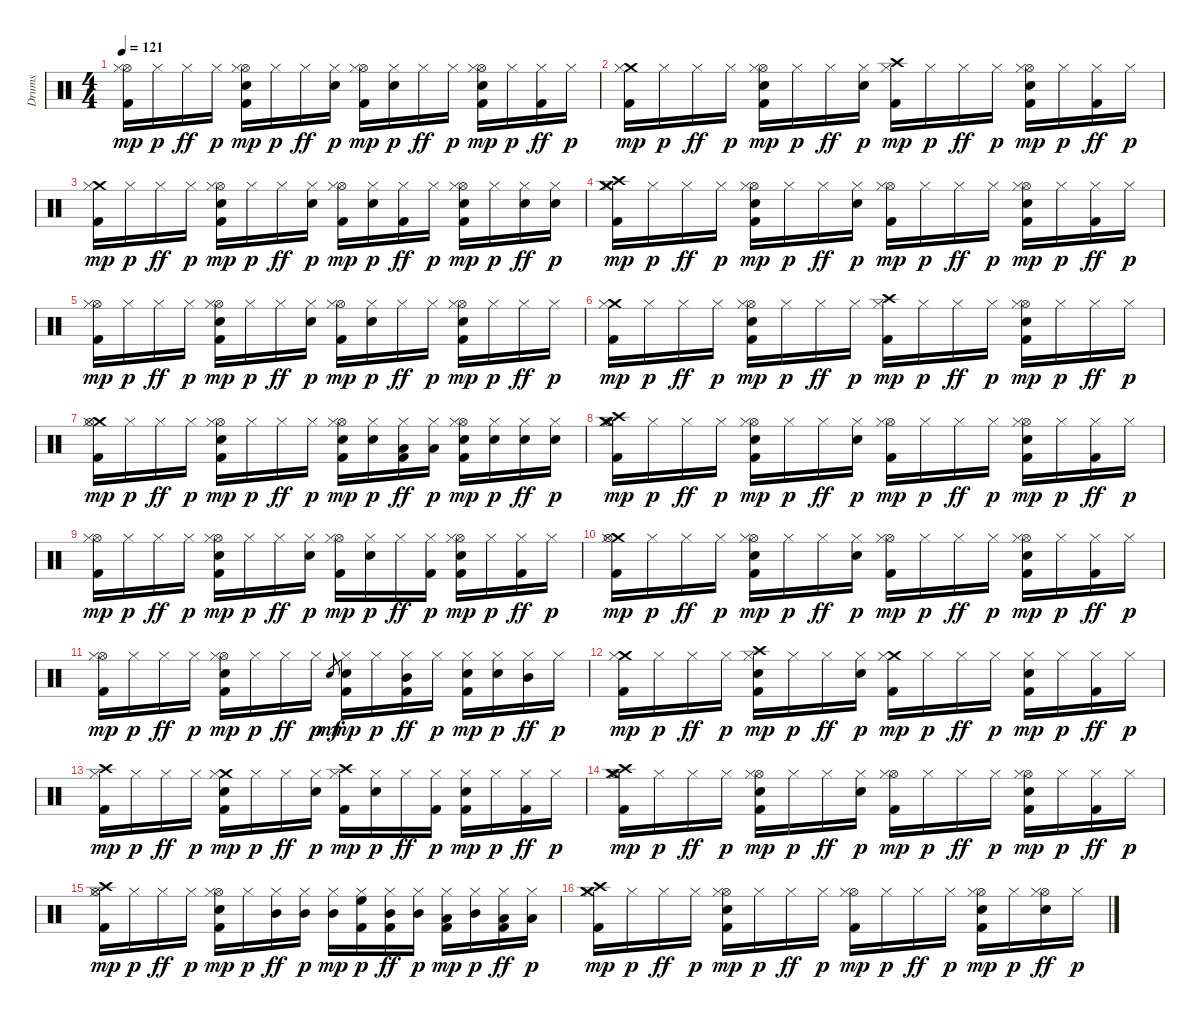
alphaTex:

\track ("Drums" "Drums") {instrument percussion}
\staff {score}
\articulation defaults
\ts (4 4)
\tempo 121
\clef neutral
\ks c
("Kick (hit) 2" "Hi-Hat (open)" "Hi-Hat (closed)").16{dy mp} "Hi-Hat (closed)".16{dy p} "Hi-Hat (closed)".16{dy ff} "Hi-Hat (closed)".16{dy p} ("Kick (hit) 2" "Hi-Hat (open)" "Electric Snare (hit)" "Hi-Hat (closed)").16{dy mp} "Hi-Hat (closed)".16{dy p} "Hi-Hat (closed)".16{dy ff} ("Electric Snare (hit)" "Hi-Hat (closed)").16{dy p} ("Kick (hit) 2" "Hi-Hat (open)" "Hi-Hat (closed)").16{dy mp} ("Electric Snare (hit)" "Hi-Hat (closed)").16{dy p} "Hi-Hat (closed)".16{dy ff} "Hi-Hat (closed)".16{dy p} ("Kick (hit) 2" "Hi-Hat (open)" "Electric Snare (hit)" "Hi-Hat (closed)").16{dy mp} "Hi-Hat (closed)".16{dy p} ("Kick (hit) 2" "Hi-Hat (closed)").16{dy ff} "Hi-Hat (closed)".16{dy p} |
("Kick (hit) 2" "Crash medium (hit)" "Hi-Hat (closed)").16{dy mp} "Hi-Hat (closed)".16{dy p} "Hi-Hat (closed)".16{dy ff} "Hi-Hat (closed)".16{dy p} ("Kick (hit) 2" "Hi-Hat (open)" "Electric Snare (hit)" "Hi-Hat (closed)").16{dy mp} "Hi-Hat (closed)".16{dy p} "Hi-Hat (closed)".16{dy ff} ("Electric Snare (hit)" "Hi-Hat (closed)").16{dy p} ("Crash high (hit)" "Kick (hit) 2" "Hi-Hat (closed)").16{dy mp} "Hi-Hat (closed)".16{dy p} "Hi-Hat (closed)".16{dy ff} "Hi-Hat (closed)".16{dy p} ("Kick (hit) 2" "Hi-Hat (open)" "Electric Snare (hit)" "Hi-Hat (closed)").16{dy mp} "Hi-Hat (closed)".16{dy p} ("Kick (hit) 2" "Hi-Hat (closed)").16{dy ff} "Hi-Hat (closed)".16{dy p} |
("Kick (hit) 2" "Crash medium (hit)" "Hi-Hat (closed)").16{dy mp} "Hi-Hat (closed)".16{dy p} "Hi-Hat (closed)".16{dy ff} "Hi-Hat (closed)".16{dy p} ("Hi-Hat (open)" "Kick (hit) 2" "Electric Snare (hit)" "Hi-Hat (closed)").16{dy mp} "Hi-Hat (closed)".16{dy p} "Hi-Hat (closed)".16{dy ff} ("Electric Snare (hit)" "Hi-Hat (closed)").16{dy p} ("Hi-Hat (open)" "Kick (hit) 2" "Hi-Hat (closed)").16{dy mp} ("Electric Snare (hit)" "Hi-Hat (closed)").16{dy p} ("Kick (hit) 2" "Hi-Hat (closed)").16{dy ff} "Hi-Hat (closed)".16{dy p} ("Hi-Hat (open)" "Kick (hit) 2" "Snare (hit) 2" "Hi-Hat (closed)").16{dy mp} "Hi-Hat (closed)".16{dy p} ("Snare (hit) 2" "Hi-Hat (closed)").16{dy ff} ("Electric Snare (hit)" "Hi-Hat (closed)").16{dy p} |
("Crash high (hit)" "Crash medium (hit)" "Kick (hit) 2" "Hi-Hat (closed)").16{dy mp} "Hi-Hat (closed)".16{dy p} "Hi-Hat (closed)".16{dy ff} "Hi-Hat (closed)".16{dy p} ("Hi-Hat (open)" "Kick (hit) 2" "Electric Snare (hit)" "Hi-Hat (closed)").16{dy mp} "Hi-Hat (closed)".16{dy p} "Hi-Hat (closed)".16{dy ff} ("Electric Snare (hit)" "Hi-Hat (closed)").16{dy p} ("Hi-Hat (open)" "Kick (hit) 2" "Hi-Hat (closed)").16{dy mp} "Hi-Hat (closed)".16{dy p} "Hi-Hat (closed)".16{dy ff} "Hi-Hat (closed)".16{dy p} ("Hi-Hat (open)" "Kick (hit) 2" "Electric Snare (hit)" "Hi-Hat (closed)").16{dy mp} "Hi-Hat (closed)".16{dy p} ("Kick (hit) 2" "Hi-Hat (closed)").16{dy ff} "Hi-Hat (closed)".16{dy p} |
("Hi-Hat (open)" "Kick (hit) 2" "Hi-Hat (closed)").16{dy mp} "Hi-Hat (closed)".16{dy p} "Hi-Hat (closed)".16{dy ff} "Hi-Hat (closed)".16{dy p} ("Hi-Hat (open)" "Kick (hit) 2" "Electric Snare (hit)" "Hi-Hat (closed)").16{dy mp} "Hi-Hat (closed)".16{dy p} "Hi-Hat (closed)".16{dy ff} ("Electric Snare (hit)" "Hi-Hat (closed)").16{dy p} ("Hi-Hat (open)" "Kick (hit) 2" "Hi-Hat (closed)").16{dy mp} ("Electric Snare (hit)" "Hi-Hat (closed)").16{dy p} "Hi-Hat (closed)".16{dy ff} "Hi-Hat (closed)".16{dy p} ("Hi-Hat (open)" "Kick (hit) 2" "Electric Snare (hit)" "Hi-Hat (closed)").16{dy mp} "Hi-Hat (closed)".16{dy p} "Hi-Hat (closed)".16{dy ff} "Hi-Hat (closed)".16{dy p} |
("Crash medium (hit)" "Kick (hit) 2" "Hi-Hat (closed)").16{dy mp} "Hi-Hat (closed)".16{dy p} "Hi-Hat (closed)".16{dy ff} "Hi-Hat (closed)".16{dy p} ("Hi-Hat (open)" "Kick (hit) 2" "Electric Snare (hit)" "Hi-Hat (closed)").16{dy mp} "Hi-Hat (closed)".16{dy p} "Hi-Hat (closed)".16{dy ff} "Hi-Hat (closed)".16{dy p} ("Crash high (hit)" "Kick (hit) 2" "Hi-Hat (closed)").16{dy mp} "Hi-Hat (closed)".16{dy p} "Hi-Hat (closed)".16{dy ff} "Hi-Hat (closed)".16{dy p} ("Hi-Hat (open)" "Kick (hit) 2" "Electric Snare (hit)" "Hi-Hat (closed)").16{dy mp} "Hi-Hat (closed)".16{dy p} "Hi-Hat (closed)".16{dy ff} "Hi-Hat (closed)".16{dy p} |
("Crash medium (hit)" "Kick (hit) 2" "Hi-Hat (open)" "Hi-Hat (closed)").16{dy mp} "Hi-Hat (closed)".16{dy p} "Hi-Hat (closed)".16{dy ff} "Hi-Hat (closed)".16{dy p} ("Kick (hit) 2" "Hi-Hat (open)" "Electric Snare (hit)" "Hi-Hat (closed)").16{dy mp} "Hi-Hat (closed)".16{dy p} "Hi-Hat (closed)".16{dy ff} "Hi-Hat (closed)".16{dy p} ("Kick (hit) 2" "Snare (hit) 2" "Hi-Hat (open)" "Hi-Hat (closed)").16{dy mp} ("Electric Snare (hit)" "Hi-Hat (closed)").16{dy p} ("Kick (hit) 2" "Low Tom (hit)" "Hi-Hat (closed)").16{dy ff} ("Low Tom (hit)" "Hi-Hat (closed)").16{dy p} ("Kick (hit) 2" "Snare (hit) 2" "Hi-Hat (open)" "Hi-Hat (closed)").16{dy mp} ("Electric Snare (hit)" "Hi-Hat (closed)").16{dy p} ("Electric Snare (hit)" "Hi-Hat (closed)").16{dy ff} ("Electric Snare (hit)" "Hi-Hat (closed)").16{dy p} |
("Kick (hit) 2" "Crash high (hit)" "Crash medium (hit)" "Hi-Hat (open)" "Hi-Hat (closed)").16{dy mp} "Hi-Hat (closed)".16{dy p} "Hi-Hat (closed)".16{dy ff} "Hi-Hat (closed)".16{dy p} ("Kick (hit) 2" "Hi-Hat (open)" "Electric Snare (hit)" "Hi-Hat (closed)").16{dy mp} "Hi-Hat (closed)".16{dy p} "Hi-Hat (closed)".16{dy ff} ("Electric Snare (hit)" "Hi-Hat (closed)").16{dy p} ("Kick (hit) 2" "Hi-Hat (open)" "Hi-Hat (closed)").16{dy mp} "Hi-Hat (closed)".16{dy p} "Hi-Hat (closed)".16{dy ff} "Hi-Hat (closed)".16{dy p} ("Kick (hit) 2" "Hi-Hat (open)" "Electric Snare (hit)" "Hi-Hat (closed)").16{dy mp} "Hi-Hat (closed)".16{dy p} ("Kick (hit) 2" "Hi-Hat (closed)").16{dy ff} "Hi-Hat (closed)".16{dy p} |
("Kick (hit) 2" "Hi-Hat (open)" "Hi-Hat (closed)").16{dy mp} "Hi-Hat (closed)".16{dy p} "Hi-Hat (closed)".16{dy ff} "Hi-Hat (closed)".16{dy p} ("Kick (hit) 2" "Hi-Hat (open)" "Electric Snare (hit)" "Hi-Hat (closed)").16{dy mp} "Hi-Hat (closed)".16{dy p} "Hi-Hat (closed)".16{dy ff} ("Electric Snare (hit)" "Hi-Hat (closed)").16{dy p} ("Kick (hit) 2" "Hi-Hat (open)" "Hi-Hat (closed)").16{dy mp} ("Electric Snare (hit)" "Hi-Hat (closed)").16{dy p} "Hi-Hat (closed)".16{dy ff} ("Kick (hit) 2" "Hi-Hat (closed)").16{dy p} ("Kick (hit) 2" "Hi-Hat (open)" "Electric Snare (hit)" "Hi-Hat (closed)").16{dy mp} "Hi-Hat (closed)".16{dy p} ("Kick (hit) 2" "Hi-Hat (closed)").16{dy ff} "Hi-Hat (closed)".16{dy p} |
("Crash medium (hit)" "Kick (hit) 2" "Hi-Hat (open)" "Hi-Hat (closed)").16{dy mp} "Hi-Hat (closed)".16{dy p} "Hi-Hat (closed)".16{dy ff} "Hi-Hat (closed)".16{dy p} ("Kick (hit) 2" "Hi-Hat (open)" "Electric Snare (hit)" "Hi-Hat (closed)").16{dy mp} "Hi-Hat (closed)".16{dy p} "Hi-Hat (closed)".16{dy ff} ("Electric Snare (hit)" "Hi-Hat (closed)").16{dy p} ("Kick (hit) 2" "Hi-Hat (open)" "Hi-Hat (closed)").16{dy mp} "Hi-Hat (closed)".16{dy p} "Hi-Hat (closed)".16{dy ff} "Hi-Hat (closed)".16{dy p} ("Kick (hit) 2" "Hi-Hat (open)" "Electric Snare (hit)" "Hi-Hat (closed)").16{dy mp} "Hi-Hat (closed)".16{dy p} ("Kick (hit) 2" "Hi-Hat (closed)").16{dy ff} "Hi-Hat (closed)".16{dy p} |
("Kick (hit) 2" "Hi-Hat (open)" "Hi-Hat (closed)").16{dy mp} "Hi-Hat (closed)".16{dy p} "Hi-Hat (closed)".16{dy ff} "Hi-Hat (closed)".16{dy p} ("Kick (hit) 2" "Hi-Hat (open)" "Electric Snare (hit)" "Hi-Hat (closed)").16{dy mp} "Hi-Hat (closed)".16{dy p} "Hi-Hat (closed)".16{dy ff} "Hi-Hat (closed)".16{dy p} "Electric Snare (hit)".8{gr dy mf} ("Snare (hit) 2" "Kick (hit) 2" "Hi-Hat (closed)").16{dy mp} "Hi-Hat (closed)".16{dy p} ("Mid Tom (hit)" "Kick (hit) 2" "Hi-Hat (closed)").16{dy ff} "Hi-Hat (closed)".16{dy p} ("Snare (hit) 2" "Kick (hit) 2" "Hi-Hat (closed)").16{dy mp} ("Electric Snare (hit)" "Hi-Hat (closed)").16{dy p} ("Mid Tom (hit)" "Hi-Hat (closed)").16{dy ff} "Hi-Hat (closed)".16{dy p} |
("Crash medium (hit)" "Kick (hit) 2" "Hi-Hat (closed)").16{dy mp} "Hi-Hat (closed)".16{dy p} "Hi-Hat (closed)".16{dy ff} "Hi-Hat (closed)".16{dy p} ("Crash high (hit)" "Kick (hit) 2" "Electric Snare (hit)" "Hi-Hat (closed)").16{dy mp} "Hi-Hat (closed)".16{dy p} "Hi-Hat (closed)".16{dy ff} ("Electric Snare (hit)" "Hi-Hat (closed)").16{dy p} ("Crash medium (hit)" "Kick (hit) 2" "Hi-Hat (closed)").16{dy mp} "Hi-Hat (closed)".16{dy p} "Hi-Hat (closed)".16{dy ff} "Hi-Hat (closed)".16{dy p} ("Kick (hit) 2" "Electric Snare (hit)" "Hi-Hat (closed)").16{dy mp} "Hi-Hat (closed)".16{dy p} ("Kick (hit) 2" "Hi-Hat (closed)").16{dy ff} "Hi-Hat (closed)".16{dy p} |
("Crash high (hit)" "Kick (hit) 2" "Hi-Hat (closed)").16{dy mp} "Hi-Hat (closed)".16{dy p} "Hi-Hat (closed)".16{dy ff} "Hi-Hat (closed)".16{dy p} ("Crash medium (hit)" "Kick (hit) 2" "Electric Snare (hit)" "Hi-Hat (closed)").16{dy mp} "Hi-Hat (closed)".16{dy p} "Hi-Hat (closed)".16{dy ff} ("Electric Snare (hit)" "Hi-Hat (closed)").16{dy p} ("Crash high (hit)" "Kick (hit) 2" "Hi-Hat (closed)").16{dy mp} ("Electric Snare (hit)" "Hi-Hat (closed)").16{dy p} "Hi-Hat (closed)".16{dy ff} ("Kick (hit) 2" "Hi-Hat (closed)").16{dy p} ("Kick (hit) 2" "Electric Snare (hit)" "Hi-Hat (closed)").16{dy mp} "Hi-Hat (closed)".16{dy p} ("Kick (hit) 2" "Hi-Hat (closed)").16{dy ff} "Hi-Hat (closed)".16{dy p} |
("Kick (hit) 2" "Hi-Hat (open)" "Crash high (hit)" "Crash medium (hit)" "Hi-Hat (closed)").16{dy mp} "Hi-Hat (closed)".16{dy p} "Hi-Hat (closed)".16{dy ff} "Hi-Hat (closed)".16{dy p} ("Hi-Hat (open)" "Kick (hit) 2" "Electric Snare (hit)" "Hi-Hat (closed)").16{dy mp} "Hi-Hat (closed)".16{dy p} "Hi-Hat (closed)".16{dy ff} ("Electric Snare (hit)" "Hi-Hat (closed)").16{dy p} ("Hi-Hat (open)" "Kick (hit) 2" "Hi-Hat (closed)").16{dy mp} "Hi-Hat (closed)".16{dy p} "Hi-Hat (closed)".16{dy ff} "Hi-Hat (closed)".16{dy p} ("Hi-Hat (open)" "Kick (hit) 2" "Electric Snare (hit)" "Hi-Hat (closed)").16{dy mp} "Hi-Hat (closed)".16{dy p} ("Kick (hit) 2" "Hi-Hat (closed)").16{dy ff} "Hi-Hat (closed)".16{dy p} |
("Hi-Hat (open)" "Kick (hit) 2" "Crash high (hit)" "Hi-Hat (closed)").16{dy mp} "Hi-Hat (closed)".16{dy p} "Hi-Hat (closed)".16{dy ff} "Hi-Hat (closed)".16{dy p} ("Hi-Hat (open)" "Kick (hit) 2" "Electric Snare (hit)" "Hi-Hat (closed)").16{dy mp} "Hi-Hat (closed)".16{dy p} ("Mid Tom (hit)" "Hi-Hat (closed)").16{dy ff} ("Mid Tom (hit)" "Hi-Hat (closed)").16{dy p} ("Mid Tom (hit)" "Hi-Hat (closed)").16{dy mp} ("High Floor Tom (hit)" "Kick (hit) 2" "Hi-Hat (closed)").16{dy p} ("Mid Tom (hit)" "Kick (hit) 2" "Hi-Hat (closed)").16{dy ff} ("Mid Tom (hit)" "Hi-Hat (closed)").16{dy p} ("Low Tom (hit)" "Kick (hit) 2" "Hi-Hat (closed)").16{dy mp} ("Mid Tom (hit)" "Hi-Hat (closed)").16{dy p} ("Low Tom (hit)" "Kick (hit) 2" "Hi-Hat (closed)").16{dy ff} ("Low Tom (hit)" "Hi-Hat (closed)").16{dy p} |
("Crash medium (hit)" "Crash high (hit)" "Kick (hit) 2" "Hi-Hat (closed)").16{dy mp} "Hi-Hat (closed)".16{dy p} "Hi-Hat (closed)".16{dy ff} "Hi-Hat (closed)".16{dy p} ("Kick (hit) 2" "Hi-Hat (open)" "Electric Snare (hit)" "Hi-Hat (closed)").16{dy mp} "Hi-Hat (closed)".16{dy p} "Hi-Hat (closed)".16{dy ff} "Hi-Hat (closed)".16{dy p} ("Kick (hit) 2" "Hi-Hat (open)" "Hi-Hat (closed)").16{dy mp} "Hi-Hat (closed)".16{dy p} "Hi-Hat (closed)".16{dy ff} "Hi-Hat (closed)".16{dy p} ("Kick (hit) 2" "Hi-Hat (open)" "Snare (hit) 2" "Hi-Hat (closed)").16{dy mp} "Hi-Hat (closed)".16{dy p} ("Hi-Hat (open)" "Snare (hit) 2" "Hi-Hat (closed)").16{dy ff} "Hi-Hat (closed)".16{dy p}
